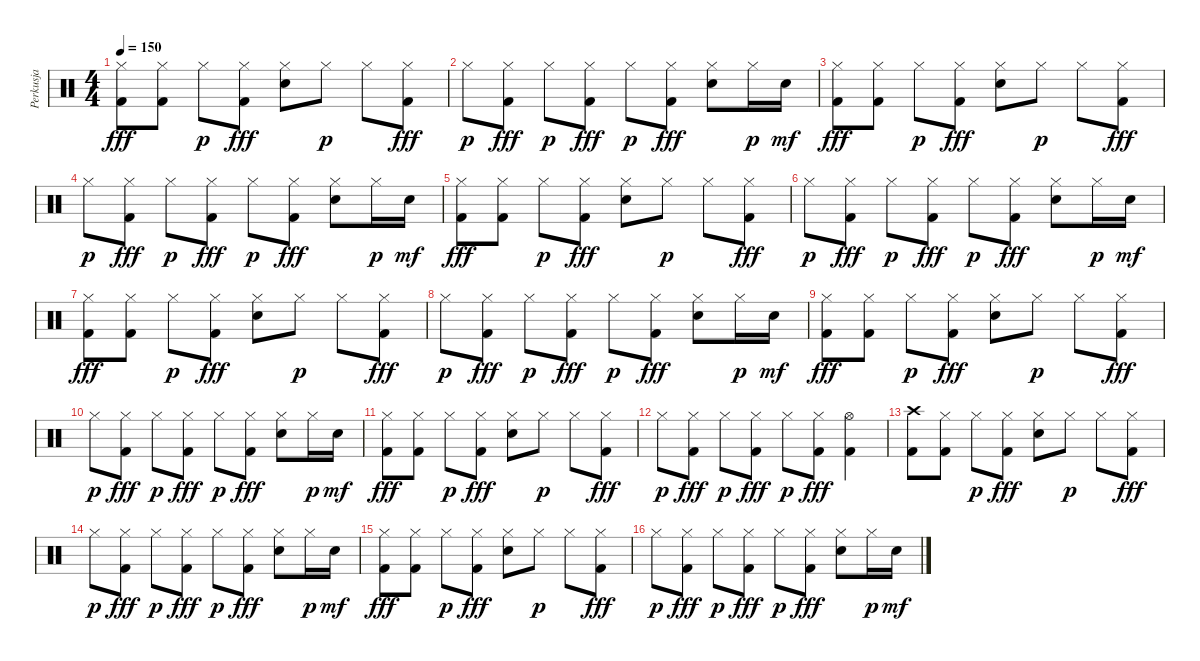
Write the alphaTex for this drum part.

\track ("Perkusja" "Perkusja") {instrument percussion}
\staff {score}
\articulation defaults
\ts (4 4)
\tempo 150
\clef neutral
\ks c
("Hi-Hat (closed)" "Kick (hit) 2").8{dy fff} ("Hi-Hat (closed)" "Kick (hit) 2").8 "Hi-Hat (closed)".8{dy p} ("Hi-Hat (closed)" "Kick (hit) 2").8{dy fff} ("Hi-Hat (closed)" "Electric Snare (hit)").8 "Hi-Hat (closed)".8{dy p} "Hi-Hat (closed)".8 ("Hi-Hat (closed)" "Kick (hit) 2").8{dy fff} |
"Hi-Hat (closed)".8{dy p} ("Hi-Hat (closed)" "Kick (hit) 2").8{dy fff} "Hi-Hat (closed)".8{dy p} ("Hi-Hat (closed)" "Kick (hit) 2").8{dy fff} "Hi-Hat (closed)".8{dy p} ("Hi-Hat (closed)" "Kick (hit) 2").8{dy fff} ("Hi-Hat (closed)" "Electric Snare (hit)").8 "Hi-Hat (closed)".16{dy p} "Electric Snare (hit)".16{dy mf} |
("Hi-Hat (closed)" "Kick (hit) 2").8{dy fff} ("Hi-Hat (closed)" "Kick (hit) 2").8 "Hi-Hat (closed)".8{dy p} ("Hi-Hat (closed)" "Kick (hit) 2").8{dy fff} ("Hi-Hat (closed)" "Electric Snare (hit)").8 "Hi-Hat (closed)".8{dy p} "Hi-Hat (closed)".8 ("Hi-Hat (closed)" "Kick (hit) 2").8{dy fff} |
"Hi-Hat (closed)".8{dy p} ("Hi-Hat (closed)" "Kick (hit) 2").8{dy fff} "Hi-Hat (closed)".8{dy p} ("Hi-Hat (closed)" "Kick (hit) 2").8{dy fff} "Hi-Hat (closed)".8{dy p} ("Hi-Hat (closed)" "Kick (hit) 2").8{dy fff} ("Hi-Hat (closed)" "Electric Snare (hit)").8 "Hi-Hat (closed)".16{dy p} "Electric Snare (hit)".16{dy mf} |
("Hi-Hat (closed)" "Kick (hit) 2").8{dy fff} ("Hi-Hat (closed)" "Kick (hit) 2").8 "Hi-Hat (closed)".8{dy p} ("Hi-Hat (closed)" "Kick (hit) 2").8{dy fff} ("Hi-Hat (closed)" "Electric Snare (hit)").8 "Hi-Hat (closed)".8{dy p} "Hi-Hat (closed)".8 ("Hi-Hat (closed)" "Kick (hit) 2").8{dy fff} |
"Hi-Hat (closed)".8{dy p} ("Hi-Hat (closed)" "Kick (hit) 2").8{dy fff} "Hi-Hat (closed)".8{dy p} ("Hi-Hat (closed)" "Kick (hit) 2").8{dy fff} "Hi-Hat (closed)".8{dy p} ("Hi-Hat (closed)" "Kick (hit) 2").8{dy fff} ("Hi-Hat (closed)" "Electric Snare (hit)").8 "Hi-Hat (closed)".16{dy p} "Electric Snare (hit)".16{dy mf} |
("Hi-Hat (closed)" "Kick (hit) 2").8{dy fff} ("Hi-Hat (closed)" "Kick (hit) 2").8 "Hi-Hat (closed)".8{dy p} ("Hi-Hat (closed)" "Kick (hit) 2").8{dy fff} ("Hi-Hat (closed)" "Electric Snare (hit)").8 "Hi-Hat (closed)".8{dy p} "Hi-Hat (closed)".8 ("Hi-Hat (closed)" "Kick (hit) 2").8{dy fff} |
"Hi-Hat (closed)".8{dy p} ("Hi-Hat (closed)" "Kick (hit) 2").8{dy fff} "Hi-Hat (closed)".8{dy p} ("Hi-Hat (closed)" "Kick (hit) 2").8{dy fff} "Hi-Hat (closed)".8{dy p} ("Hi-Hat (closed)" "Kick (hit) 2").8{dy fff} ("Hi-Hat (closed)" "Electric Snare (hit)").8 "Hi-Hat (closed)".16{dy p} "Electric Snare (hit)".16{dy mf} |
("Hi-Hat (closed)" "Kick (hit) 2").8{dy fff} ("Hi-Hat (closed)" "Kick (hit) 2").8 "Hi-Hat (closed)".8{dy p} ("Hi-Hat (closed)" "Kick (hit) 2").8{dy fff} ("Hi-Hat (closed)" "Electric Snare (hit)").8 "Hi-Hat (closed)".8{dy p} "Hi-Hat (closed)".8 ("Hi-Hat (closed)" "Kick (hit) 2").8{dy fff} |
"Hi-Hat (closed)".8{dy p} ("Hi-Hat (closed)" "Kick (hit) 2").8{dy fff} "Hi-Hat (closed)".8{dy p} ("Hi-Hat (closed)" "Kick (hit) 2").8{dy fff} "Hi-Hat (closed)".8{dy p} ("Hi-Hat (closed)" "Kick (hit) 2").8{dy fff} ("Hi-Hat (closed)" "Electric Snare (hit)").8 "Hi-Hat (closed)".16{dy p} "Electric Snare (hit)".16{dy mf} |
("Hi-Hat (closed)" "Kick (hit) 2").8{dy fff} ("Hi-Hat (closed)" "Kick (hit) 2").8 "Hi-Hat (closed)".8{dy p} ("Hi-Hat (closed)" "Kick (hit) 2").8{dy fff} ("Hi-Hat (closed)" "Electric Snare (hit)").8 "Hi-Hat (closed)".8{dy p} "Hi-Hat (closed)".8 ("Hi-Hat (closed)" "Kick (hit) 2").8{dy fff} |
"Hi-Hat (closed)".8{dy p} ("Hi-Hat (closed)" "Kick (hit) 2").8{dy fff} "Hi-Hat (closed)".8{dy p} ("Hi-Hat (closed)" "Kick (hit) 2").8{dy fff} "Hi-Hat (closed)".8{dy p} ("Hi-Hat (closed)" "Kick (hit) 2").8{dy fff} ("Hi-Hat (open)" "Kick (hit) 2").4 |
("Crash high (hit)" "Kick (hit) 2").8 ("Hi-Hat (closed)" "Kick (hit) 2").8 "Hi-Hat (closed)".8{dy p} ("Hi-Hat (closed)" "Kick (hit) 2").8{dy fff} ("Hi-Hat (closed)" "Electric Snare (hit)").8 "Hi-Hat (closed)".8{dy p} "Hi-Hat (closed)".8 ("Hi-Hat (closed)" "Kick (hit) 2").8{dy fff} |
"Hi-Hat (closed)".8{dy p} ("Hi-Hat (closed)" "Kick (hit) 2").8{dy fff} "Hi-Hat (closed)".8{dy p} ("Hi-Hat (closed)" "Kick (hit) 2").8{dy fff} "Hi-Hat (closed)".8{dy p} ("Hi-Hat (closed)" "Kick (hit) 2").8{dy fff} ("Hi-Hat (closed)" "Electric Snare (hit)").8 "Hi-Hat (closed)".16{dy p} "Electric Snare (hit)".16{dy mf} |
("Hi-Hat (closed)" "Kick (hit) 2").8{dy fff} ("Hi-Hat (closed)" "Kick (hit) 2").8 "Hi-Hat (closed)".8{dy p} ("Hi-Hat (closed)" "Kick (hit) 2").8{dy fff} ("Hi-Hat (closed)" "Electric Snare (hit)").8 "Hi-Hat (closed)".8{dy p} "Hi-Hat (closed)".8 ("Hi-Hat (closed)" "Kick (hit) 2").8{dy fff} |
"Hi-Hat (closed)".8{dy p} ("Hi-Hat (closed)" "Kick (hit) 2").8{dy fff} "Hi-Hat (closed)".8{dy p} ("Hi-Hat (closed)" "Kick (hit) 2").8{dy fff} "Hi-Hat (closed)".8{dy p} ("Hi-Hat (closed)" "Kick (hit) 2").8{dy fff} ("Hi-Hat (closed)" "Electric Snare (hit)").8 "Hi-Hat (closed)".16{dy p} "Electric Snare (hit)".16{dy mf}
